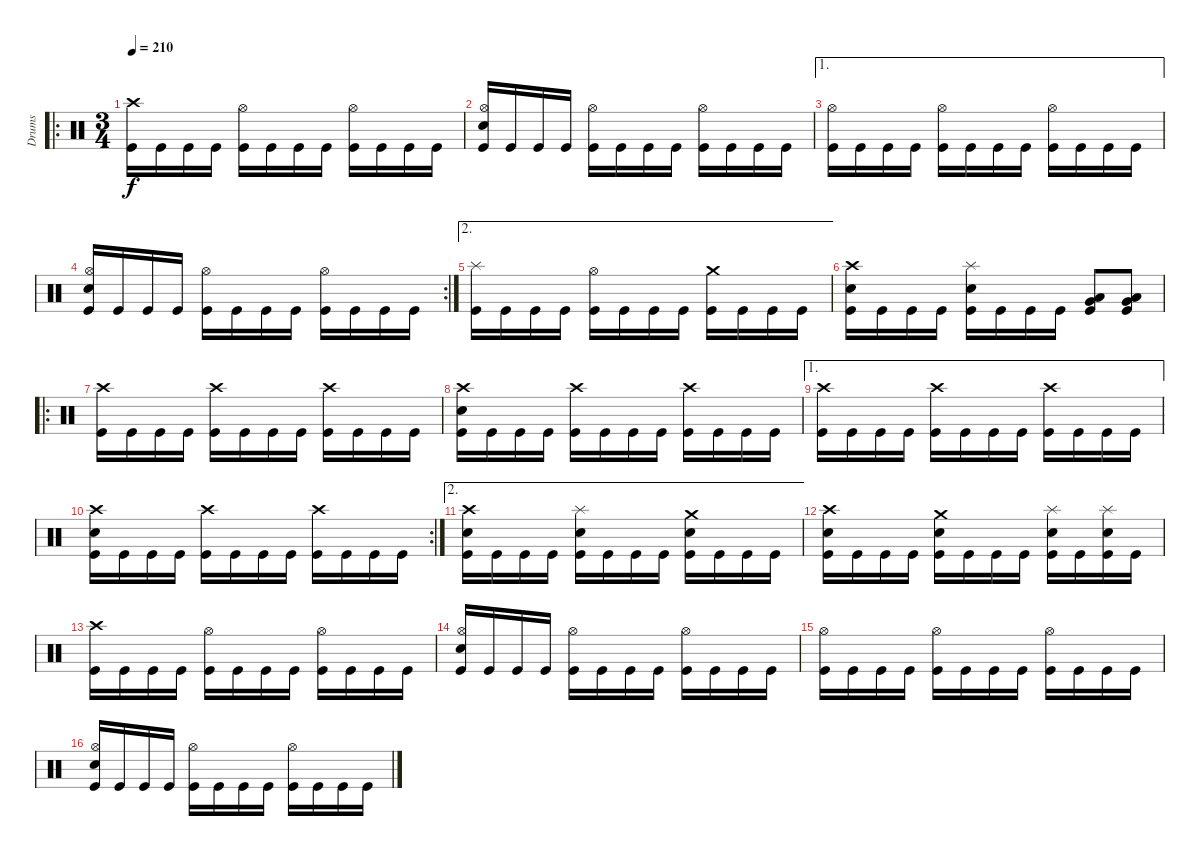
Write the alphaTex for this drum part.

\track ("Drums" "Drums") {instrument percussion}
\staff {score}
\articulation defaults
\ro
\ts (3 4)
\tempo 210
\clef neutral
\ks c
("Crash high (hit)" "Kick (hit)").16{dy f} "Kick (hit)".16 "Kick (hit)".16 "Kick (hit)".16 ("Hi-Hat (open)" "Kick (hit)").16 "Kick (hit)".16 "Kick (hit)".16 "Kick (hit)".16 ("Hi-Hat (open)" "Kick (hit)").16 "Kick (hit)".16 "Kick (hit)".16 "Kick (hit)".16 |
("Hi-Hat (open)" "Electric Snare (hit)" "Kick (hit)").16 "Kick (hit)".16 "Kick (hit)".16 "Kick (hit)".16 ("Hi-Hat (open)" "Kick (hit)").16 "Kick (hit)".16 "Kick (hit)".16 "Kick (hit)".16 ("Hi-Hat (open)" "Kick (hit)").16 "Kick (hit)".16 "Kick (hit)".16 "Kick (hit)".16 |
\ae 1
("Hi-Hat (open)" "Kick (hit)").16 "Kick (hit)".16 "Kick (hit)".16 "Kick (hit)".16 ("Hi-Hat (open)" "Kick (hit)").16 "Kick (hit)".16 "Kick (hit)".16 "Kick (hit)".16 ("Hi-Hat (open)" "Kick (hit)").16 "Kick (hit)".16 "Kick (hit)".16 "Kick (hit)".16 |
\rc 2
("Hi-Hat (open)" "Electric Snare (hit)" "Kick (hit)").16 "Kick (hit)".16 "Kick (hit)".16 "Kick (hit)".16 ("Hi-Hat (open)" "Kick (hit)").16 "Kick (hit)".16 "Kick (hit)".16 "Kick (hit)".16 ("Hi-Hat (open)" "Kick (hit)").16 "Kick (hit)".16 "Kick (hit)".16 "Kick (hit)".16 |
\ae 2
("Splash (hit)" "Kick (hit)").16 "Kick (hit)".16 "Kick (hit)".16 "Kick (hit)".16 ("Hi-Hat (open)" "Kick (hit)").16 "Kick (hit)".16 "Kick (hit)".16 "Kick (hit)".16 ("Crash medium (hit)" "Kick (hit)").16 "Kick (hit)".16 "Kick (hit)".16 "Kick (hit)".16 |
("Crash high (hit)" "Electric Snare (hit)" "Kick (hit)").16 "Kick (hit)".16 "Kick (hit)".16 "Kick (hit)".16 ("Splash (hit)" "Electric Snare (hit)" "Kick (hit)").16 "Kick (hit)".16 "Kick (hit)".16 "Kick (hit)".16 ("Low Floor Tom (hit)" "Very Low Tom (hit)" "Kick (hit)").8 ("Low Floor Tom (hit)" "Very Low Tom (hit)" "Kick (hit)").8 |
\ro
("Crash high (hit)" "Kick (hit)").16 "Kick (hit)".16 "Kick (hit)".16 "Kick (hit)".16 ("Crash high (hit)" "Kick (hit)").16 "Kick (hit)".16 "Kick (hit)".16 "Kick (hit)".16 ("Crash high (hit)" "Kick (hit)").16 "Kick (hit)".16 "Kick (hit)".16 "Kick (hit)".16 |
("Crash high (hit)" "Electric Snare (hit)" "Kick (hit)").16 "Kick (hit)".16 "Kick (hit)".16 "Kick (hit)".16 ("Crash high (hit)" "Kick (hit)").16 "Kick (hit)".16 "Kick (hit)".16 "Kick (hit)".16 ("Crash high (hit)" "Kick (hit)").16 "Kick (hit)".16 "Kick (hit)".16 "Kick (hit)".16 |
\ae 1
("Crash high (hit)" "Kick (hit)").16 "Kick (hit)".16 "Kick (hit)".16 "Kick (hit)".16 ("Crash high (hit)" "Kick (hit)").16 "Kick (hit)".16 "Kick (hit)".16 "Kick (hit)".16 ("Crash high (hit)" "Kick (hit)").16 "Kick (hit)".16 "Kick (hit)".16 "Kick (hit)".16 |
\rc 2
("Crash high (hit)" "Electric Snare (hit)" "Kick (hit)").16 "Kick (hit)".16 "Kick (hit)".16 "Kick (hit)".16 ("Crash high (hit)" "Kick (hit)").16 "Kick (hit)".16 "Kick (hit)".16 "Kick (hit)".16 ("Crash high (hit)" "Kick (hit)").16 "Kick (hit)".16 "Kick (hit)".16 "Kick (hit)".16 |
\ae 2
("Crash high (hit)" "Electric Snare (hit)" "Kick (hit)").16 "Kick (hit)".16 "Kick (hit)".16 "Kick (hit)".16 ("Splash (hit)" "Electric Snare (hit)" "Kick (hit)").16 "Kick (hit)".16 "Kick (hit)".16 "Kick (hit)".16 ("Crash medium (hit)" "Electric Snare (hit)" "Kick (hit)").16 "Kick (hit)".16 "Kick (hit)".16 "Kick (hit)".16 |
("Crash high (hit)" "Electric Snare (hit)" "Kick (hit)").16 "Kick (hit)".16 "Kick (hit)".16 "Kick (hit)".16 ("Crash medium (hit)" "Electric Snare (hit)" "Kick (hit)").16 "Kick (hit)".16 "Kick (hit)".16 "Kick (hit)".16 ("Splash (hit)" "Electric Snare (hit)" "Kick (hit)").16 "Kick (hit)".16 ("Splash (hit)" "Electric Snare (hit)" "Kick (hit)").16 "Kick (hit)".16 |
("Crash high (hit)" "Kick (hit)").16{volume 14} "Kick (hit)".16 "Kick (hit)".16 "Kick (hit)".16 ("Hi-Hat (open)" "Kick (hit)").16 "Kick (hit)".16 "Kick (hit)".16 "Kick (hit)".16 ("Hi-Hat (open)" "Kick (hit)").16 "Kick (hit)".16 "Kick (hit)".16 "Kick (hit)".16 |
("Hi-Hat (open)" "Electric Snare (hit)" "Kick (hit)").16 "Kick (hit)".16 "Kick (hit)".16 "Kick (hit)".16 ("Hi-Hat (open)" "Kick (hit)").16 "Kick (hit)".16 "Kick (hit)".16 "Kick (hit)".16 ("Hi-Hat (open)" "Kick (hit)").16 "Kick (hit)".16 "Kick (hit)".16 "Kick (hit)".16 |
("Hi-Hat (open)" "Kick (hit)").16{volume 12} "Kick (hit)".16 "Kick (hit)".16 "Kick (hit)".16 ("Hi-Hat (open)" "Kick (hit)").16 "Kick (hit)".16 "Kick (hit)".16 "Kick (hit)".16 ("Hi-Hat (open)" "Kick (hit)").16 "Kick (hit)".16 "Kick (hit)".16 "Kick (hit)".16 |
("Hi-Hat (open)" "Electric Snare (hit)" "Kick (hit)").16 "Kick (hit)".16 "Kick (hit)".16 "Kick (hit)".16 ("Hi-Hat (open)" "Kick (hit)").16 "Kick (hit)".16 "Kick (hit)".16 "Kick (hit)".16 ("Hi-Hat (open)" "Kick (hit)").16 "Kick (hit)".16 "Kick (hit)".16 "Kick (hit)".16
